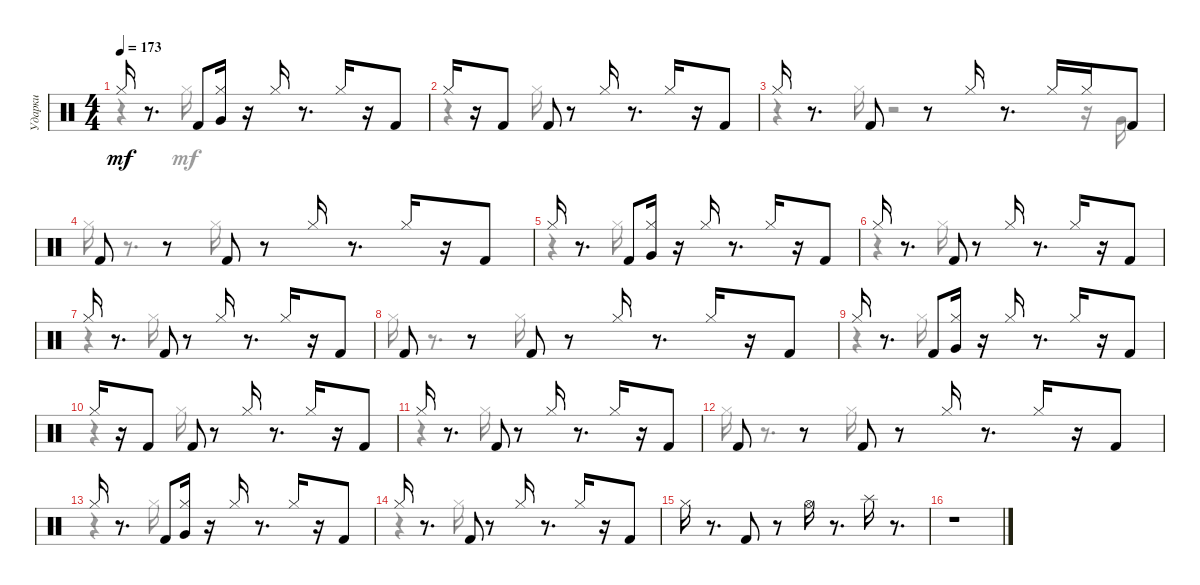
\track ("Ударки" "Ударки") {instrument percussion}
\staff {score}
\articulation defaults
\voice
\ts (4 4)
\tempo 173
\clef neutral
\ks aminor "Hi-Hat (closed)".16{dy mf}
r.8{d} "Kick (hit) 2".8 ("Very Low Tom (hit)" "Hi-Hat (closed)").16 r.16 "Hi-Hat (closed)".16 r.8{d} "Hi-Hat (closed)".16 r.16 "Kick (hit) 2".8 |
"Hi-Hat (closed)".16 r.16 "Kick (hit) 2".8 "Kick (hit) 2".8 r.8 "Hi-Hat (closed)".16 r.8{d} "Hi-Hat (closed)".16 r.16 "Kick (hit) 2".8 |
"Hi-Hat (closed)".16 r.8{d} "Kick (hit) 2".8 r.8 "Hi-Hat (closed)".16 r.8{d} "Hi-Hat (closed)".16 "Hi-Hat (closed)".16 "Kick (hit) 2".8 |
"Kick (hit) 2".8 r.8 "Kick (hit) 2".8 r.8 "Hi-Hat (closed)".16 r.8{d} "Hi-Hat (closed)".16 r.16 "Kick (hit) 2".8 |
"Hi-Hat (closed)".16 r.8{d} "Kick (hit) 2".8 ("Hi-Hat (closed)" "Very Low Tom (hit)").16 r.16 "Hi-Hat (closed)".16 r.8{d} "Hi-Hat (closed)".16 r.16 "Kick (hit) 2".8 |
"Hi-Hat (closed)".16 r.8{d} "Kick (hit) 2".8 r.8 "Hi-Hat (closed)".16 r.8{d} "Hi-Hat (closed)".16 r.16 "Kick (hit) 2".8 |
"Hi-Hat (closed)".16 r.8{d} "Kick (hit) 2".8 r.8 "Hi-Hat (closed)".16 r.8{d} "Hi-Hat (closed)".16 r.16 "Kick (hit) 2".8 |
"Kick (hit) 2".8 r.8 "Kick (hit) 2".8 r.8 "Hi-Hat (closed)".16 r.8{d} "Hi-Hat (closed)".16 r.16 "Kick (hit) 2".8 |
"Hi-Hat (closed)".16 r.8{d} "Kick (hit) 2".8 ("Hi-Hat (closed)" "Very Low Tom (hit)").16 r.16 "Hi-Hat (closed)".16 r.8{d} "Hi-Hat (closed)".16 r.16 "Kick (hit) 2".8 |
"Hi-Hat (closed)".16 r.16 "Kick (hit) 2".8 "Kick (hit) 2".8 r.8 "Hi-Hat (closed)".16 r.8{d} "Hi-Hat (closed)".16 r.16 "Kick (hit) 2".8 |
"Hi-Hat (closed)".16 r.8{d} "Kick (hit) 2".8 r.8 "Hi-Hat (closed)".16 r.8{d} "Hi-Hat (closed)".16 r.16 "Kick (hit) 2".8 |
"Kick (hit) 2".8 r.8 "Kick (hit) 2".8 r.8 "Hi-Hat (closed)".16 r.8{d} "Hi-Hat (closed)".16 r.16 "Kick (hit) 2".8 |
"Hi-Hat (closed)".16 r.8{d} "Kick (hit) 2".8 ("Very Low Tom (hit)" "Hi-Hat (closed)").16 r.16 "Hi-Hat (closed)".16 r.8{d} "Hi-Hat (closed)".16 r.16 "Kick (hit) 2".8 |
"Hi-Hat (closed)".16 r.8{d} "Kick (hit) 2".8 r.8 "Hi-Hat (closed)".16 r.8{d} "Hi-Hat (closed)".16 r.16 "Kick (hit) 2".8 |
"Hi-Hat (closed)".16 r.8{d} "Kick (hit) 2".8 r.8 "Hi-Hat (open)".16 r.8{d} "Splash (hit)".16 r.8{d} |
r.1
\voice
\clef neutral
\ottava regular
\simile none
\ks aminor
r.4{dy mf} "Hi-Hat (closed)".16 |
r.4 "Hi-Hat (closed)".16 |
r.4 "Hi-Hat (closed)".16 r.2 r.16 "Very Low Tom (hit)".16 |
"Hi-Hat (closed)".16 r.8{d} "Hi-Hat (closed)".16 |
r.4 "Hi-Hat (closed)".16 |
r.4 "Hi-Hat (closed)".16 |
r.4 "Hi-Hat (closed)".16 |
"Hi-Hat (closed)".16 r.8{d} "Hi-Hat (closed)".16 |
r.4 "Hi-Hat (closed)".16 |
r.4 "Hi-Hat (closed)".16 |
r.4 "Hi-Hat (closed)".16 |
"Hi-Hat (closed)".16 r.8{d} "Hi-Hat (closed)".16 |
r.4 "Hi-Hat (closed)".16 |
r.4 "Hi-Hat (closed)".16 |
|
